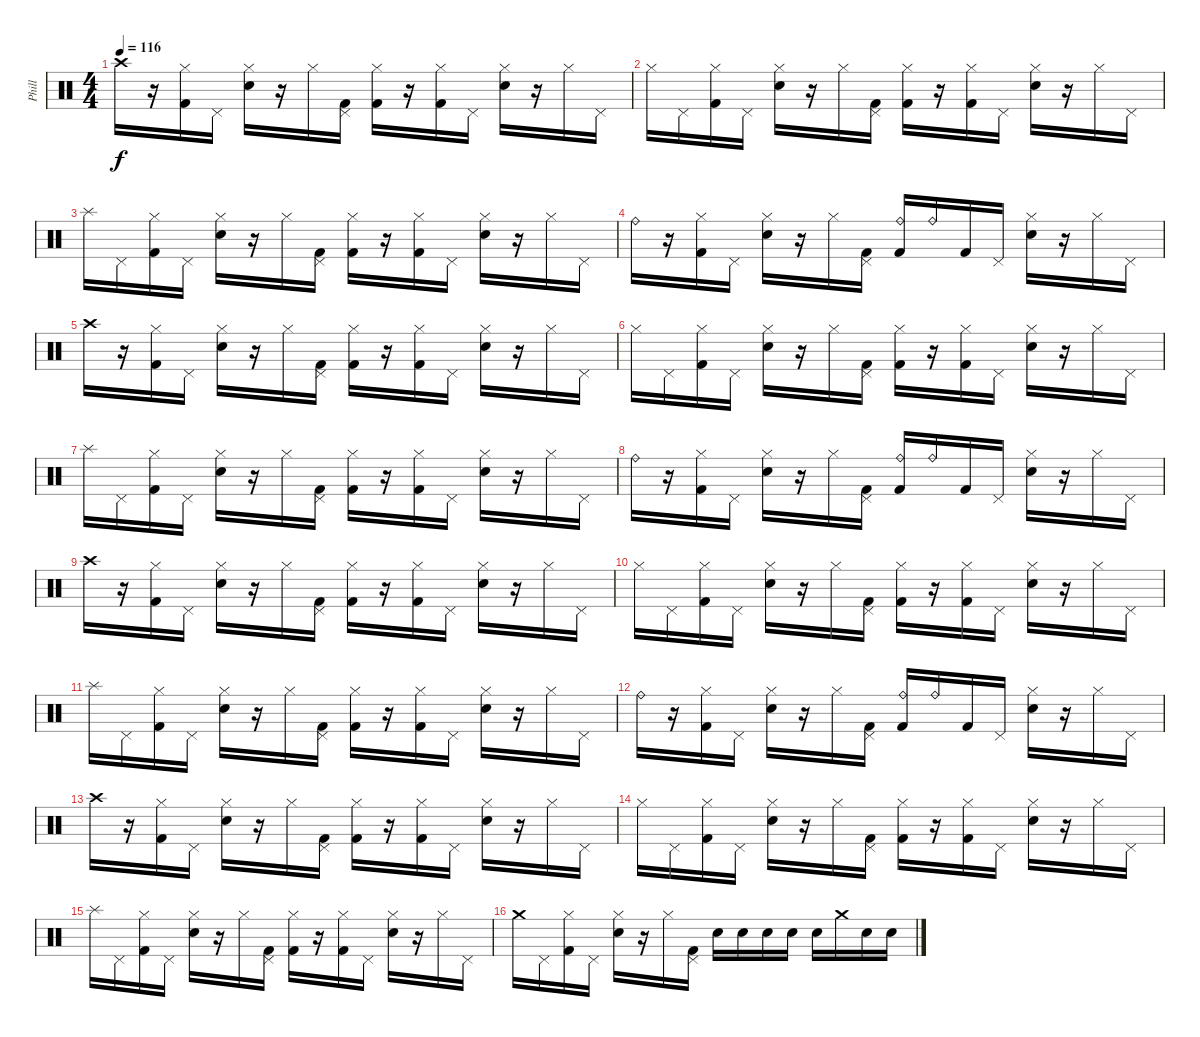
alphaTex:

\track ("Phill" "Phill") {instrument percussion}
\staff {score}
\articulation defaults
\ts (4 4)
\tempo 116
\clef neutral
\ks c "Crash high (hit)".16{dy f}
r.16 ("Hi-Hat (closed)" "Kick (hit) 2").16 "Pedal Hi-Hat (hit)".16 ("Hi-Hat (closed)" "Electric Snare (hit)").16 r.16 "Hi-Hat (closed)".16 ("Pedal Hi-Hat (hit)" "Kick (hit) 2").16 ("Hi-Hat (closed)" "Kick (hit) 2").16 r.16 ("Hi-Hat (closed)" "Kick (hit) 2").16 "Pedal Hi-Hat (hit)".16 ("Hi-Hat (closed)" "Electric Snare (hit)").16 r.16 "Hi-Hat (closed)".16 "Pedal Hi-Hat (hit)".16 |
"Hi-Hat (closed)".16 "Pedal Hi-Hat (hit)".16 ("Hi-Hat (closed)" "Kick (hit) 2").16 "Pedal Hi-Hat (hit)".16 ("Hi-Hat (closed)" "Electric Snare (hit)").16 r.16 "Hi-Hat (closed)".16 ("Pedal Hi-Hat (hit)" "Kick (hit) 2").16 ("Hi-Hat (closed)" "Kick (hit) 2").16 r.16 ("Hi-Hat (closed)" "Kick (hit) 2").16 "Pedal Hi-Hat (hit)".16 ("Hi-Hat (closed)" "Electric Snare (hit)").16 r.16 "Hi-Hat (closed)".16 "Pedal Hi-Hat (hit)".16 |
"Splash (hit)".16 "Pedal Hi-Hat (hit)".16 ("Hi-Hat (closed)" "Kick (hit) 2").16 "Pedal Hi-Hat (hit)".16 ("Hi-Hat (closed)" "Electric Snare (hit)").16 r.16 "Hi-Hat (closed)".16 ("Pedal Hi-Hat (hit)" "Kick (hit) 2").16 ("Hi-Hat (closed)" "Kick (hit) 2").16 r.16 ("Hi-Hat (closed)" "Kick (hit) 2").16 "Pedal Hi-Hat (hit)".16 ("Hi-Hat (closed)" "Electric Snare (hit)").16 r.16 "Hi-Hat (closed)".16 "Pedal Hi-Hat (hit)".16 |
"Ride (bell)".16 r.16 ("Hi-Hat (closed)" "Kick (hit) 2").16 "Pedal Hi-Hat (hit)".16 ("Hi-Hat (closed)" "Electric Snare (hit)").16 r.16 "Hi-Hat (closed)".16 ("Pedal Hi-Hat (hit)" "Kick (hit) 2").16 ("Ride (bell)" "Kick (hit) 2").16 "Ride (bell)".16 "Kick (hit) 2".16 "Pedal Hi-Hat (hit)".16 ("Hi-Hat (closed)" "Electric Snare (hit)").16 r.16 "Hi-Hat (closed)".16 "Pedal Hi-Hat (hit)".16 |
"Crash high (hit)".16 r.16 ("Hi-Hat (closed)" "Kick (hit) 2").16 "Pedal Hi-Hat (hit)".16 ("Hi-Hat (closed)" "Electric Snare (hit)").16 r.16 "Hi-Hat (closed)".16 ("Pedal Hi-Hat (hit)" "Kick (hit) 2").16 ("Hi-Hat (closed)" "Kick (hit) 2").16 r.16 ("Hi-Hat (closed)" "Kick (hit) 2").16 "Pedal Hi-Hat (hit)".16 ("Hi-Hat (closed)" "Electric Snare (hit)").16 r.16 "Hi-Hat (closed)".16 "Pedal Hi-Hat (hit)".16 |
"Hi-Hat (closed)".16 "Pedal Hi-Hat (hit)".16 ("Hi-Hat (closed)" "Kick (hit) 2").16 "Pedal Hi-Hat (hit)".16 ("Hi-Hat (closed)" "Electric Snare (hit)").16 r.16 "Hi-Hat (closed)".16 ("Pedal Hi-Hat (hit)" "Kick (hit) 2").16 ("Hi-Hat (closed)" "Kick (hit) 2").16 r.16 ("Hi-Hat (closed)" "Kick (hit) 2").16 "Pedal Hi-Hat (hit)".16 ("Hi-Hat (closed)" "Electric Snare (hit)").16 r.16 "Hi-Hat (closed)".16 "Pedal Hi-Hat (hit)".16 |
"Splash (hit)".16 "Pedal Hi-Hat (hit)".16 ("Hi-Hat (closed)" "Kick (hit) 2").16 "Pedal Hi-Hat (hit)".16 ("Hi-Hat (closed)" "Electric Snare (hit)").16 r.16 "Hi-Hat (closed)".16 ("Pedal Hi-Hat (hit)" "Kick (hit) 2").16 ("Hi-Hat (closed)" "Kick (hit) 2").16 r.16 ("Hi-Hat (closed)" "Kick (hit) 2").16 "Pedal Hi-Hat (hit)".16 ("Hi-Hat (closed)" "Electric Snare (hit)").16 r.16 "Hi-Hat (closed)".16 "Pedal Hi-Hat (hit)".16 |
"Ride (bell)".16 r.16 ("Hi-Hat (closed)" "Kick (hit) 2").16 "Pedal Hi-Hat (hit)".16 ("Hi-Hat (closed)" "Electric Snare (hit)").16 r.16 "Hi-Hat (closed)".16 ("Pedal Hi-Hat (hit)" "Kick (hit) 2").16 ("Ride (bell)" "Kick (hit) 2").16 "Ride (bell)".16 "Kick (hit) 2".16 "Pedal Hi-Hat (hit)".16 ("Hi-Hat (closed)" "Electric Snare (hit)").16 r.16 "Hi-Hat (closed)".16 "Pedal Hi-Hat (hit)".16 |
"Crash high (hit)".16 r.16 ("Hi-Hat (closed)" "Kick (hit) 2").16 "Pedal Hi-Hat (hit)".16 ("Hi-Hat (closed)" "Electric Snare (hit)").16 r.16 "Hi-Hat (closed)".16 ("Pedal Hi-Hat (hit)" "Kick (hit) 2").16 ("Hi-Hat (closed)" "Kick (hit) 2").16 r.16 ("Hi-Hat (closed)" "Kick (hit) 2").16 "Pedal Hi-Hat (hit)".16 ("Hi-Hat (closed)" "Electric Snare (hit)").16 r.16 "Hi-Hat (closed)".16 "Pedal Hi-Hat (hit)".16 |
"Hi-Hat (closed)".16 "Pedal Hi-Hat (hit)".16 ("Hi-Hat (closed)" "Kick (hit) 2").16 "Pedal Hi-Hat (hit)".16 ("Hi-Hat (closed)" "Electric Snare (hit)").16 r.16 "Hi-Hat (closed)".16 ("Pedal Hi-Hat (hit)" "Kick (hit) 2").16 ("Hi-Hat (closed)" "Kick (hit) 2").16 r.16 ("Hi-Hat (closed)" "Kick (hit) 2").16 "Pedal Hi-Hat (hit)".16 ("Hi-Hat (closed)" "Electric Snare (hit)").16 r.16 "Hi-Hat (closed)".16 "Pedal Hi-Hat (hit)".16 |
"Splash (hit)".16 "Pedal Hi-Hat (hit)".16 ("Hi-Hat (closed)" "Kick (hit) 2").16 "Pedal Hi-Hat (hit)".16 ("Hi-Hat (closed)" "Electric Snare (hit)").16 r.16 "Hi-Hat (closed)".16 ("Pedal Hi-Hat (hit)" "Kick (hit) 2").16 ("Hi-Hat (closed)" "Kick (hit) 2").16 r.16 ("Hi-Hat (closed)" "Kick (hit) 2").16 "Pedal Hi-Hat (hit)".16 ("Hi-Hat (closed)" "Electric Snare (hit)").16 r.16 "Hi-Hat (closed)".16 "Pedal Hi-Hat (hit)".16 |
"Ride (bell)".16 r.16 ("Hi-Hat (closed)" "Kick (hit) 2").16 "Pedal Hi-Hat (hit)".16 ("Hi-Hat (closed)" "Electric Snare (hit)").16 r.16 "Hi-Hat (closed)".16 ("Pedal Hi-Hat (hit)" "Kick (hit) 2").16 ("Ride (bell)" "Kick (hit) 2").16 "Ride (bell)".16 "Kick (hit) 2".16 "Pedal Hi-Hat (hit)".16 ("Hi-Hat (closed)" "Electric Snare (hit)").16 r.16 "Hi-Hat (closed)".16 "Pedal Hi-Hat (hit)".16 |
"Crash high (hit)".16 r.16 ("Hi-Hat (closed)" "Kick (hit) 2").16 "Pedal Hi-Hat (hit)".16 ("Hi-Hat (closed)" "Electric Snare (hit)").16 r.16 "Hi-Hat (closed)".16 ("Pedal Hi-Hat (hit)" "Kick (hit) 2").16 ("Hi-Hat (closed)" "Kick (hit) 2").16 r.16 ("Hi-Hat (closed)" "Kick (hit) 2").16 "Pedal Hi-Hat (hit)".16 ("Hi-Hat (closed)" "Electric Snare (hit)").16 r.16 "Hi-Hat (closed)".16 "Pedal Hi-Hat (hit)".16 |
"Hi-Hat (closed)".16 "Pedal Hi-Hat (hit)".16 ("Hi-Hat (closed)" "Kick (hit) 2").16 "Pedal Hi-Hat (hit)".16 ("Hi-Hat (closed)" "Electric Snare (hit)").16 r.16 "Hi-Hat (closed)".16 ("Pedal Hi-Hat (hit)" "Kick (hit) 2").16 ("Hi-Hat (closed)" "Kick (hit) 2").16 r.16 ("Hi-Hat (closed)" "Kick (hit) 2").16 "Pedal Hi-Hat (hit)".16 ("Hi-Hat (closed)" "Electric Snare (hit)").16 r.16 "Hi-Hat (closed)".16 "Pedal Hi-Hat (hit)".16 |
"Splash (hit)".16 "Pedal Hi-Hat (hit)".16 ("Hi-Hat (closed)" "Kick (hit) 2").16 "Pedal Hi-Hat (hit)".16 ("Hi-Hat (closed)" "Electric Snare (hit)").16 r.16 "Hi-Hat (closed)".16 ("Pedal Hi-Hat (hit)" "Kick (hit) 2").16 ("Hi-Hat (closed)" "Kick (hit) 2").16 r.16 ("Hi-Hat (closed)" "Kick (hit) 2").16 "Pedal Hi-Hat (hit)".16 ("Hi-Hat (closed)" "Electric Snare (hit)").16 r.16 "Hi-Hat (closed)".16 "Pedal Hi-Hat (hit)".16 |
"Crash medium (hit)".16 "Pedal Hi-Hat (hit)".16 ("Hi-Hat (closed)" "Kick (hit) 2").16 "Pedal Hi-Hat (hit)".16 ("Hi-Hat (closed)" "Electric Snare (hit)").16 r.16 "Hi-Hat (closed)".16 ("Pedal Hi-Hat (hit)" "Kick (hit) 2").16 "Electric Snare (hit)".16 "Electric Snare (hit)".16 "Electric Snare (hit)".16 "Electric Snare (hit)".16 "Electric Snare (hit)".16 "Crash medium (hit)".16 "Electric Snare (hit)".16 "Electric Snare (hit)".16
